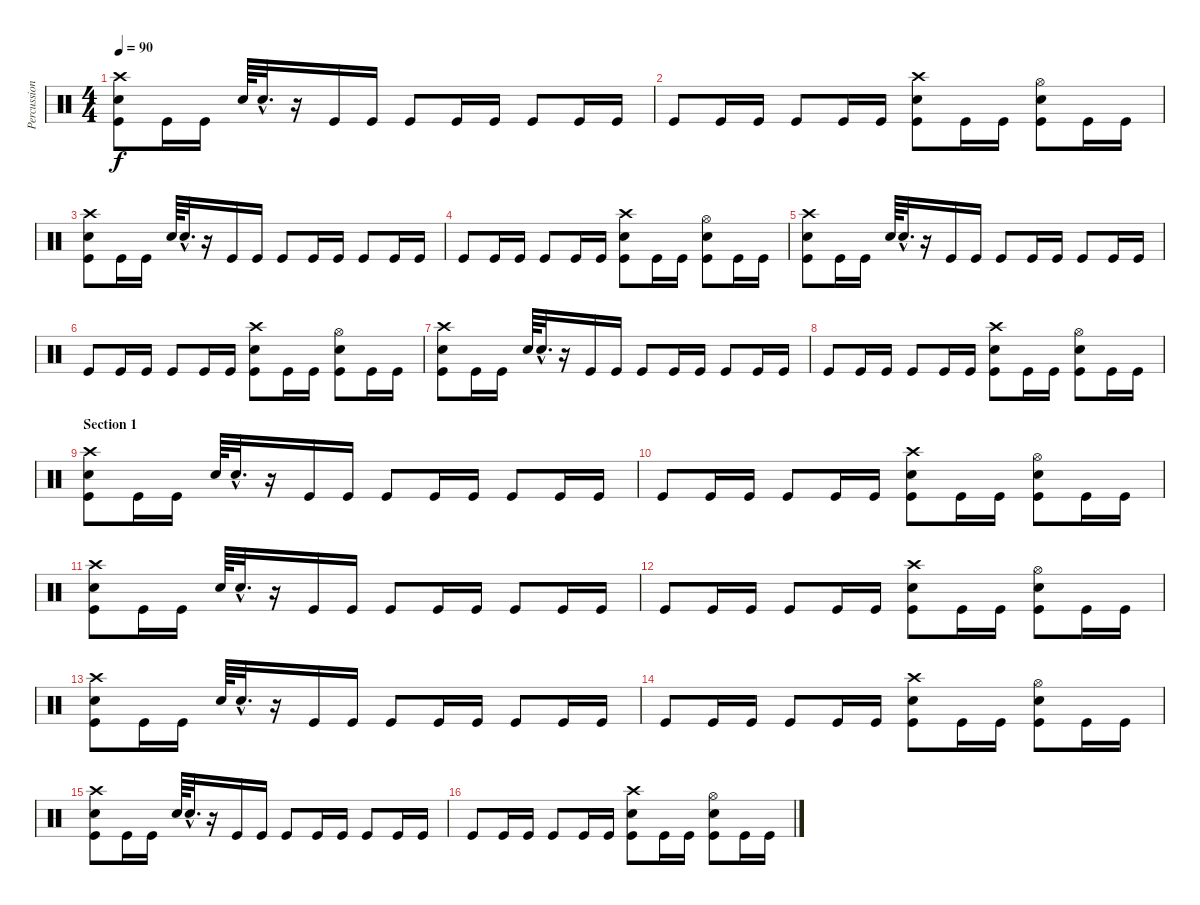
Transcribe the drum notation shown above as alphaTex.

\track ("Percussions" "Percussion") {instrument percussion}
\staff {score}
\articulation defaults
\ts (4 4)
\tempo 90
\clef neutral
\ks c
("Crash high (hit)" "Snare (hit) 2" "Kick (hit)").8{dy f} "Kick (hit)".16 "Kick (hit)".16 "Snare (hit) 2".64 "Snare (hit) 2"{hac}.32{d} r.16 "Kick (hit)".16 "Kick (hit)".16 "Kick (hit)".8 "Kick (hit)".16 "Kick (hit)".16 "Kick (hit)".8 "Kick (hit)".16 "Kick (hit)".16 |
"Kick (hit)".8 "Kick (hit)".16 "Kick (hit)".16 "Kick (hit)".8 "Kick (hit)".16 "Kick (hit)".16 ("Crash high (hit)" "Snare (hit) 2" "Kick (hit)").8 "Kick (hit)".16 "Kick (hit)".16 ("Hi-Hat (open)" "Snare (hit) 2" "Kick (hit)").8 "Kick (hit)".16 "Kick (hit)".16 |
("Crash high (hit)" "Snare (hit) 2" "Kick (hit)").8 "Kick (hit)".16 "Kick (hit)".16 "Snare (hit) 2".64 "Snare (hit) 2"{hac}.32{d} r.16 "Kick (hit)".16 "Kick (hit)".16 "Kick (hit)".8 "Kick (hit)".16 "Kick (hit)".16 "Kick (hit)".8 "Kick (hit)".16 "Kick (hit)".16 |
"Kick (hit)".8 "Kick (hit)".16 "Kick (hit)".16 "Kick (hit)".8 "Kick (hit)".16 "Kick (hit)".16 ("Crash high (hit)" "Snare (hit) 2" "Kick (hit)").8 "Kick (hit)".16 "Kick (hit)".16 ("Hi-Hat (open)" "Snare (hit) 2" "Kick (hit)").8 "Kick (hit)".16 "Kick (hit)".16 |
("Crash high (hit)" "Snare (hit) 2" "Kick (hit)").8 "Kick (hit)".16 "Kick (hit)".16 "Snare (hit) 2".64 "Snare (hit) 2"{hac}.32{d} r.16 "Kick (hit)".16 "Kick (hit)".16 "Kick (hit)".8 "Kick (hit)".16 "Kick (hit)".16 "Kick (hit)".8 "Kick (hit)".16 "Kick (hit)".16 |
"Kick (hit)".8 "Kick (hit)".16 "Kick (hit)".16 "Kick (hit)".8 "Kick (hit)".16 "Kick (hit)".16 ("Crash high (hit)" "Snare (hit) 2" "Kick (hit)").8 "Kick (hit)".16 "Kick (hit)".16 ("Hi-Hat (open)" "Snare (hit) 2" "Kick (hit)").8 "Kick (hit)".16 "Kick (hit)".16 |
("Crash high (hit)" "Snare (hit) 2" "Kick (hit)").8 "Kick (hit)".16 "Kick (hit)".16 "Snare (hit) 2".64 "Snare (hit) 2"{hac}.32{d} r.16 "Kick (hit)".16 "Kick (hit)".16 "Kick (hit)".8 "Kick (hit)".16 "Kick (hit)".16 "Kick (hit)".8 "Kick (hit)".16 "Kick (hit)".16 |
"Kick (hit)".8 "Kick (hit)".16 "Kick (hit)".16 "Kick (hit)".8 "Kick (hit)".16 "Kick (hit)".16 ("Crash high (hit)" "Snare (hit) 2" "Kick (hit)").8 "Kick (hit)".16 "Kick (hit)".16 ("Hi-Hat (open)" "Snare (hit) 2" "Kick (hit)").8 "Kick (hit)".16 "Kick (hit)".16 |
\section ("" "Section 1")
("Crash high (hit)" "Snare (hit) 2" "Kick (hit)").8{volume 14} "Kick (hit)".16 "Kick (hit)".16 "Snare (hit) 2".64 "Snare (hit) 2"{hac}.32{d} r.16 "Kick (hit)".16 "Kick (hit)".16 "Kick (hit)".8 "Kick (hit)".16 "Kick (hit)".16 "Kick (hit)".8 "Kick (hit)".16 "Kick (hit)".16 |
"Kick (hit)".8{volume 12} "Kick (hit)".16 "Kick (hit)".16 "Kick (hit)".8 "Kick (hit)".16 "Kick (hit)".16 ("Crash high (hit)" "Snare (hit) 2" "Kick (hit)").8 "Kick (hit)".16 "Kick (hit)".16 ("Hi-Hat (open)" "Snare (hit) 2" "Kick (hit)").8 "Kick (hit)".16 "Kick (hit)".16 |
("Crash high (hit)" "Snare (hit) 2" "Kick (hit)").8{volume 10} "Kick (hit)".16 "Kick (hit)".16 "Snare (hit) 2".64 "Snare (hit) 2"{hac}.32{d} r.16 "Kick (hit)".16 "Kick (hit)".16 "Kick (hit)".8 "Kick (hit)".16 "Kick (hit)".16 "Kick (hit)".8 "Kick (hit)".16 "Kick (hit)".16 |
"Kick (hit)".8{volume 9} "Kick (hit)".16 "Kick (hit)".16 "Kick (hit)".8 "Kick (hit)".16 "Kick (hit)".16 ("Crash high (hit)" "Snare (hit) 2" "Kick (hit)").8 "Kick (hit)".16 "Kick (hit)".16 ("Hi-Hat (open)" "Snare (hit) 2" "Kick (hit)").8 "Kick (hit)".16 "Kick (hit)".16 |
("Crash high (hit)" "Snare (hit) 2" "Kick (hit)").8{volume 8} "Kick (hit)".16 "Kick (hit)".16 "Snare (hit) 2".64 "Snare (hit) 2"{hac}.32{d} r.16 "Kick (hit)".16 "Kick (hit)".16 "Kick (hit)".8 "Kick (hit)".16 "Kick (hit)".16 "Kick (hit)".8 "Kick (hit)".16 "Kick (hit)".16 |
"Kick (hit)".8{volume 7} "Kick (hit)".16 "Kick (hit)".16 "Kick (hit)".8 "Kick (hit)".16 "Kick (hit)".16 ("Crash high (hit)" "Snare (hit) 2" "Kick (hit)").8 "Kick (hit)".16 "Kick (hit)".16 ("Hi-Hat (open)" "Snare (hit) 2" "Kick (hit)").8 "Kick (hit)".16 "Kick (hit)".16 |
("Crash high (hit)" "Snare (hit) 2" "Kick (hit)").8{volume 6} "Kick (hit)".16 "Kick (hit)".16 "Snare (hit) 2".64 "Snare (hit) 2"{hac}.32{d} r.16 "Kick (hit)".16 "Kick (hit)".16 "Kick (hit)".8 "Kick (hit)".16 "Kick (hit)".16 "Kick (hit)".8 "Kick (hit)".16 "Kick (hit)".16 |
"Kick (hit)".8{volume 5} "Kick (hit)".16 "Kick (hit)".16 "Kick (hit)".8 "Kick (hit)".16 "Kick (hit)".16 ("Crash high (hit)" "Snare (hit) 2" "Kick (hit)").8 "Kick (hit)".16 "Kick (hit)".16 ("Hi-Hat (open)" "Snare (hit) 2" "Kick (hit)").8 "Kick (hit)".16 "Kick (hit)".16
